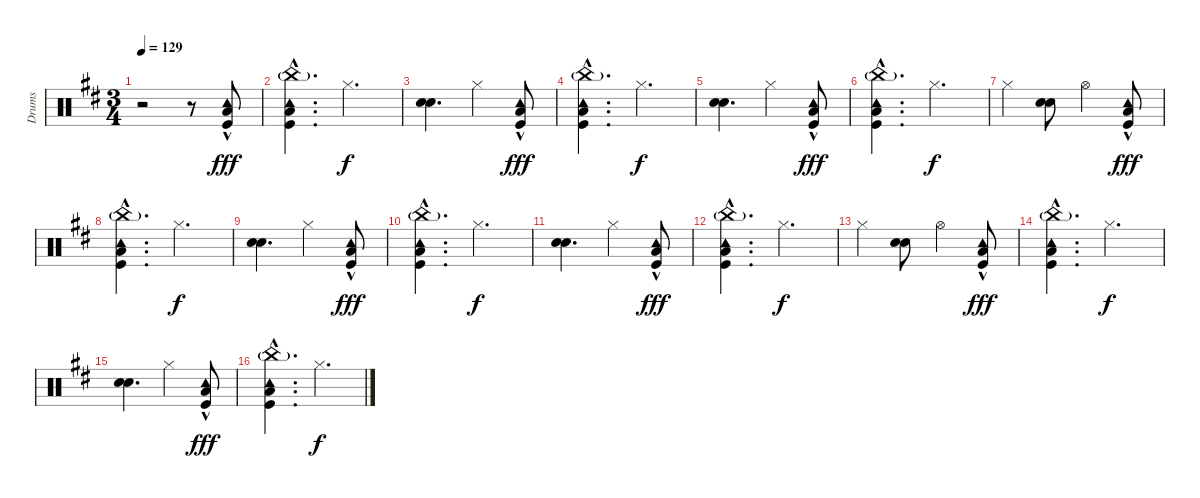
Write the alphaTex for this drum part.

\track ("Drums" "Drums") {instrument percussion}
\staff {score}
\articulation defaults
\ts (3 4)
\tempo 129
\clef neutral
\ks bminor
r.2{dy ff} r.8 ("Kick (hit)"{hac} "Low Floor Tom (hit)"{hac} "Tambourine (hit)"{hac}).8{dy fff volume 16} |
("Kick (hit)"{hac} "Low Floor Tom (hit)"{hac} "China (hit)"{g} "Tambourine (hit)"{hac}).4{d} "Hi-Hat (closed)".4{d dy f} |
("Snare (hit) 2" "Electric Snare (hit)").4{d} "Hi-Hat (closed)".4 ("Kick (hit)"{hac} "Low Floor Tom (hit)"{hac} "Tambourine (hit)"{hac}).8{dy fff} |
("Kick (hit)"{hac} "Low Floor Tom (hit)"{hac} "China (hit)"{g} "Tambourine (hit)"{hac}).4{d} "Hi-Hat (closed)".4{d dy f} |
("Snare (hit) 2" "Electric Snare (hit)").4{d} "Hi-Hat (closed)".4 ("Kick (hit)"{hac} "Low Floor Tom (hit)"{hac} "Tambourine (hit)"{hac}).8{dy fff} |
("Kick (hit)"{hac} "Low Floor Tom (hit)"{hac} "China (hit)"{g} "Tambourine (hit)"{hac}).4{d} "Hi-Hat (closed)".4{d dy f} |
"Hi-Hat (closed)".4 ("Electric Snare (hit)" "Snare (hit) 2").8 "Hi-Hat (open)".4 ("Kick (hit)"{hac} "Low Floor Tom (hit)"{hac} "Tambourine (hit)"{hac}).8{dy fff} |
("Kick (hit)"{hac} "Low Floor Tom (hit)"{hac} "China (hit)"{g} "Tambourine (hit)"{hac}).4{d} "Hi-Hat (closed)".4{d dy f} |
("Snare (hit) 2" "Electric Snare (hit)").4{d} "Hi-Hat (closed)".4 ("Kick (hit)"{hac} "Low Floor Tom (hit)"{hac} "Tambourine (hit)"{hac}).8{dy fff} |
("Kick (hit)"{hac} "Low Floor Tom (hit)"{hac} "China (hit)"{g} "Tambourine (hit)"{hac}).4{d} "Hi-Hat (closed)".4{d dy f} |
("Snare (hit) 2" "Electric Snare (hit)").4{d} "Hi-Hat (closed)".4 ("Kick (hit)"{hac} "Low Floor Tom (hit)"{hac} "Tambourine (hit)"{hac}).8{dy fff} |
("Kick (hit)"{hac} "Low Floor Tom (hit)"{hac} "China (hit)"{g} "Tambourine (hit)"{hac}).4{d} "Hi-Hat (closed)".4{d dy f} |
"Hi-Hat (closed)".4 ("Electric Snare (hit)" "Snare (hit) 2").8 "Hi-Hat (open)".4 ("Kick (hit)"{hac} "Low Floor Tom (hit)"{hac} "Tambourine (hit)"{hac}).8{dy fff} |
("Kick (hit)"{hac} "Low Floor Tom (hit)"{hac} "China (hit)"{g} "Tambourine (hit)"{hac}).4{d} "Hi-Hat (closed)".4{d dy f} |
("Snare (hit) 2" "Electric Snare (hit)").4{d} "Hi-Hat (closed)".4 ("Kick (hit)"{hac} "Low Floor Tom (hit)"{hac} "Tambourine (hit)"{hac}).8{dy fff} |
("Kick (hit)"{hac} "Low Floor Tom (hit)"{hac} "China (hit)"{g} "Tambourine (hit)"{hac}).4{d} "Hi-Hat (closed)".4{d dy f}
